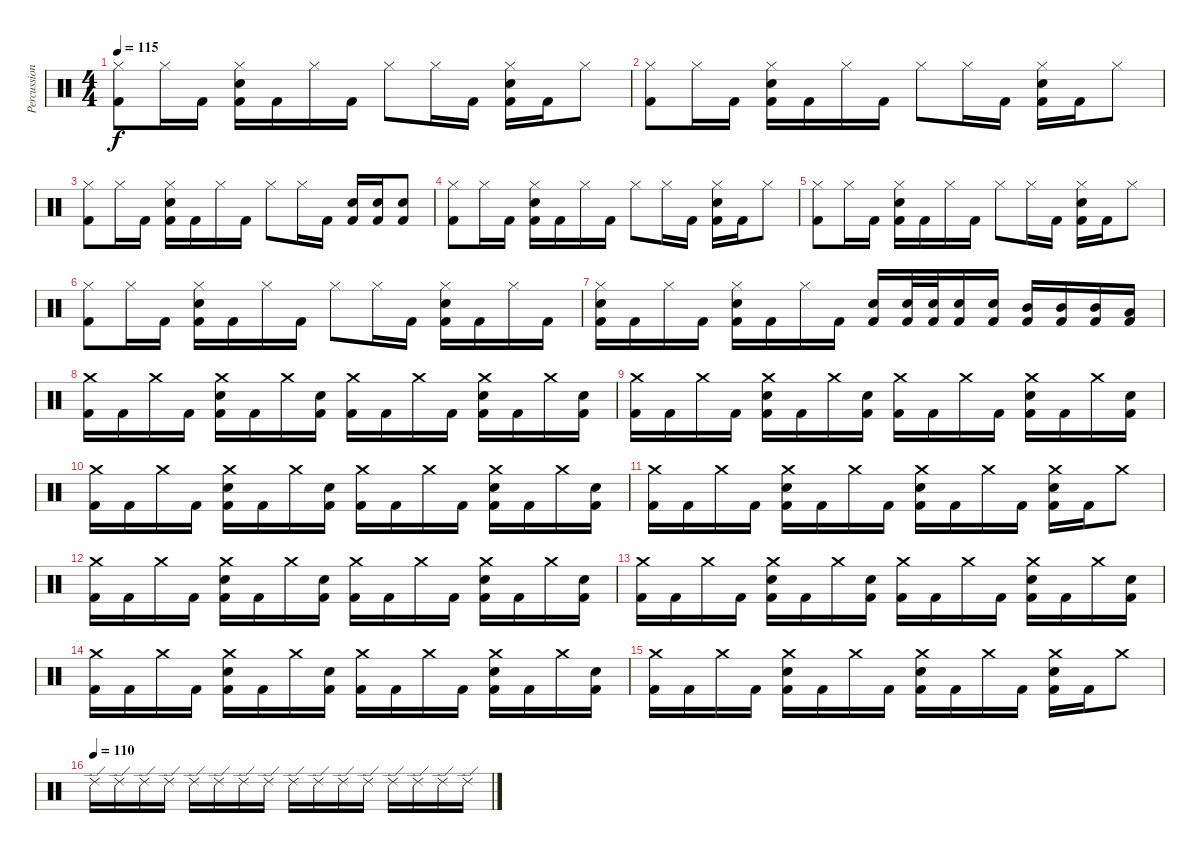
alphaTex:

\track ("Percussion" "Percussion") {instrument percussion}
\staff {score}
\articulation defaults
\ts (4 4)
\tempo 115
\clef neutral
\ks c
("Kick (hit) 2" "Hi-Hat (closed)").8{dy f} "Hi-Hat (closed)".16 "Kick (hit) 2".16 ("Snare (hit) 2" "Kick (hit) 2" "Hi-Hat (closed)").16 "Kick (hit) 2".16 "Hi-Hat (closed)".16 "Kick (hit) 2".16 "Hi-Hat (closed)".8 "Hi-Hat (closed)".16 "Kick (hit) 2".16 ("Snare (hit) 2" "Kick (hit) 2" "Hi-Hat (closed)").16 "Kick (hit) 2".16 "Hi-Hat (closed)".8 |
("Kick (hit) 2" "Hi-Hat (closed)").8 "Hi-Hat (closed)".16 "Kick (hit) 2".16 ("Snare (hit) 2" "Kick (hit) 2" "Hi-Hat (closed)").16 "Kick (hit) 2".16 "Hi-Hat (closed)".16 "Kick (hit) 2".16 "Hi-Hat (closed)".8 "Hi-Hat (closed)".16 "Kick (hit) 2".16 ("Snare (hit) 2" "Kick (hit) 2" "Hi-Hat (closed)").16 "Kick (hit) 2".16 "Hi-Hat (closed)".8 |
("Kick (hit) 2" "Hi-Hat (closed)").8 "Hi-Hat (closed)".16 "Kick (hit) 2".16 ("Snare (hit) 2" "Kick (hit) 2" "Hi-Hat (closed)").16 "Kick (hit) 2".16 "Hi-Hat (closed)".16 "Kick (hit) 2".16 "Hi-Hat (closed)".8 "Hi-Hat (closed)".16 "Kick (hit) 2".16 ("Snare (hit) 2" "Kick (hit) 2").16 ("Snare (hit) 2" "Kick (hit) 2").16 ("Snare (hit) 2" "Kick (hit) 2").8 |
("Kick (hit) 2" "Hi-Hat (closed)").8 "Hi-Hat (closed)".16 "Kick (hit) 2".16 ("Snare (hit) 2" "Kick (hit) 2" "Hi-Hat (closed)").16 "Kick (hit) 2".16 "Hi-Hat (closed)".16 "Kick (hit) 2".16 "Hi-Hat (closed)".8 "Hi-Hat (closed)".16 "Kick (hit) 2".16 ("Snare (hit) 2" "Kick (hit) 2" "Hi-Hat (closed)").16 "Kick (hit) 2".16 "Hi-Hat (closed)".8 |
("Kick (hit) 2" "Hi-Hat (closed)").8 "Hi-Hat (closed)".16 "Kick (hit) 2".16 ("Snare (hit) 2" "Kick (hit) 2" "Hi-Hat (closed)").16 "Kick (hit) 2".16 "Hi-Hat (closed)".16 "Kick (hit) 2".16 "Hi-Hat (closed)".8 "Hi-Hat (closed)".16 "Kick (hit) 2".16 ("Snare (hit) 2" "Kick (hit) 2" "Hi-Hat (closed)").16 "Kick (hit) 2".16 "Hi-Hat (closed)".8 |
("Kick (hit) 2" "Hi-Hat (closed)").8 "Hi-Hat (closed)".16 "Kick (hit) 2".16 ("Snare (hit) 2" "Kick (hit) 2" "Hi-Hat (closed)").16 "Kick (hit) 2".16 "Hi-Hat (closed)".16 "Kick (hit) 2".16 "Hi-Hat (closed)".8 "Hi-Hat (closed)".16 "Kick (hit) 2".16 ("Snare (hit) 2" "Kick (hit) 2" "Hi-Hat (closed)").16 "Kick (hit) 2".16 "Hi-Hat (closed)".16 "Kick (hit) 2".16 |
("Snare (hit) 2" "Kick (hit) 2" "Hi-Hat (closed)").16 "Kick (hit) 2".16 "Hi-Hat (closed)".16 "Kick (hit) 2".16 ("Snare (hit) 2" "Kick (hit) 2" "Hi-Hat (closed)").16 "Kick (hit) 2".16 "Hi-Hat (closed)".16 "Kick (hit) 2".16 ("Snare (hit) 2" "Kick (hit) 2").16 ("Snare (hit) 2" "Kick (hit) 2").32 ("Snare (hit) 2" "Kick (hit) 2").32 ("Snare (hit) 2" "Kick (hit) 2").16 ("Snare (hit) 2" "Kick (hit) 2").16 ("Mid Tom (hit)" "Kick (hit) 2").16 ("Mid Tom (hit)" "Kick (hit) 2").16 ("Mid Tom (hit)" "Kick (hit) 2").16 ("Low Tom (hit)" "Kick (hit) 2").16 |
("Kick (hit) 2" "Crash medium (hit)").16 "Kick (hit) 2".16 "Crash medium (hit)".16 "Kick (hit) 2".16 ("Snare (hit) 2" "Kick (hit) 2" "Crash medium (hit)").16 "Kick (hit) 2".16 "Crash medium (hit)".16 ("Snare (hit) 2" "Kick (hit) 2").16 ("Kick (hit) 2" "Crash medium (hit)").16 "Kick (hit) 2".16 "Crash medium (hit)".16 "Kick (hit) 2".16 ("Snare (hit) 2" "Kick (hit) 2" "Crash medium (hit)").16 "Kick (hit) 2".16 "Crash medium (hit)".16 ("Snare (hit) 2" "Kick (hit) 2").16 |
("Kick (hit) 2" "Crash medium (hit)").16 "Kick (hit) 2".16 "Crash medium (hit)".16 "Kick (hit) 2".16 ("Snare (hit) 2" "Kick (hit) 2" "Crash medium (hit)").16 "Kick (hit) 2".16 "Crash medium (hit)".16 ("Snare (hit) 2" "Kick (hit) 2").16 ("Kick (hit) 2" "Crash medium (hit)").16 "Kick (hit) 2".16 "Crash medium (hit)".16 "Kick (hit) 2".16 ("Snare (hit) 2" "Kick (hit) 2" "Crash medium (hit)").16 "Kick (hit) 2".16 "Crash medium (hit)".16 ("Snare (hit) 2" "Kick (hit) 2").16 |
("Kick (hit) 2" "Crash medium (hit)").16 "Kick (hit) 2".16 "Crash medium (hit)".16 "Kick (hit) 2".16 ("Snare (hit) 2" "Kick (hit) 2" "Crash medium (hit)").16 "Kick (hit) 2".16 "Crash medium (hit)".16 ("Snare (hit) 2" "Kick (hit) 2").16 ("Kick (hit) 2" "Crash medium (hit)").16 "Kick (hit) 2".16 "Crash medium (hit)".16 "Kick (hit) 2".16 ("Snare (hit) 2" "Kick (hit) 2" "Crash medium (hit)").16 "Kick (hit) 2".16 "Crash medium (hit)".16 ("Snare (hit) 2" "Kick (hit) 2").16 |
("Kick (hit) 2" "Crash medium (hit)").16 "Kick (hit) 2".16 "Crash medium (hit)".16 "Kick (hit) 2".16 ("Snare (hit) 2" "Kick (hit) 2" "Crash medium (hit)").16 "Kick (hit) 2".16 "Crash medium (hit)".16 "Kick (hit) 2".16 ("Snare (hit) 2" "Kick (hit) 2" "Crash medium (hit)").16 "Kick (hit) 2".16 "Crash medium (hit)".16 "Kick (hit) 2".16 ("Snare (hit) 2" "Kick (hit) 2" "Crash medium (hit)").16 "Kick (hit) 2".16 "Crash medium (hit)".8 |
("Kick (hit) 2" "Crash medium (hit)").16 "Kick (hit) 2".16 "Crash medium (hit)".16 "Kick (hit) 2".16 ("Snare (hit) 2" "Kick (hit) 2" "Crash medium (hit)").16 "Kick (hit) 2".16 "Crash medium (hit)".16 ("Snare (hit) 2" "Kick (hit) 2").16 ("Kick (hit) 2" "Crash medium (hit)").16 "Kick (hit) 2".16 "Crash medium (hit)".16 "Kick (hit) 2".16 ("Snare (hit) 2" "Kick (hit) 2" "Crash medium (hit)").16 "Kick (hit) 2".16 "Crash medium (hit)".16 ("Snare (hit) 2" "Kick (hit) 2").16 |
("Kick (hit) 2" "Crash medium (hit)").16 "Kick (hit) 2".16 "Crash medium (hit)".16 "Kick (hit) 2".16 ("Snare (hit) 2" "Kick (hit) 2" "Crash medium (hit)").16 "Kick (hit) 2".16 "Crash medium (hit)".16 ("Snare (hit) 2" "Kick (hit) 2").16 ("Kick (hit) 2" "Crash medium (hit)").16 "Kick (hit) 2".16 "Crash medium (hit)".16 "Kick (hit) 2".16 ("Snare (hit) 2" "Kick (hit) 2" "Crash medium (hit)").16 "Kick (hit) 2".16 "Crash medium (hit)".16 ("Snare (hit) 2" "Kick (hit) 2").16 |
("Kick (hit) 2" "Crash medium (hit)").16 "Kick (hit) 2".16 "Crash medium (hit)".16 "Kick (hit) 2".16 ("Snare (hit) 2" "Kick (hit) 2" "Crash medium (hit)").16 "Kick (hit) 2".16 "Crash medium (hit)".16 ("Snare (hit) 2" "Kick (hit) 2").16 ("Kick (hit) 2" "Crash medium (hit)").16 "Kick (hit) 2".16 "Crash medium (hit)".16 "Kick (hit) 2".16 ("Snare (hit) 2" "Kick (hit) 2" "Crash medium (hit)").16 "Kick (hit) 2".16 "Crash medium (hit)".16 ("Snare (hit) 2" "Kick (hit) 2").16 |
("Kick (hit) 2" "Crash medium (hit)").16 "Kick (hit) 2".16 "Crash medium (hit)".16 "Kick (hit) 2".16 ("Snare (hit) 2" "Kick (hit) 2" "Crash medium (hit)").16 "Kick (hit) 2".16 "Crash medium (hit)".16 "Kick (hit) 2".16 ("Snare (hit) 2" "Kick (hit) 2" "Crash medium (hit)").16 "Kick (hit) 2".16 "Crash medium (hit)".16 "Kick (hit) 2".16 ("Snare (hit) 2" "Kick (hit) 2" "Crash medium (hit)").16 "Kick (hit) 2".16 "Crash medium (hit)".8 |
\tempo (110)
"Ride (edge) 2".16 "Ride (edge) 2".16 "Ride (edge) 2".16 "Ride (edge) 2".16 "Ride (edge) 2".16 "Ride (edge) 2".16 "Ride (edge) 2".16 "Ride (edge) 2".16 "Ride (edge) 2".16 "Ride (edge) 2".16 "Ride (edge) 2".16 "Ride (edge) 2".16 "Ride (edge) 2".16 "Ride (edge) 2".16 "Ride (edge) 2".16 "Ride (edge) 2".16
